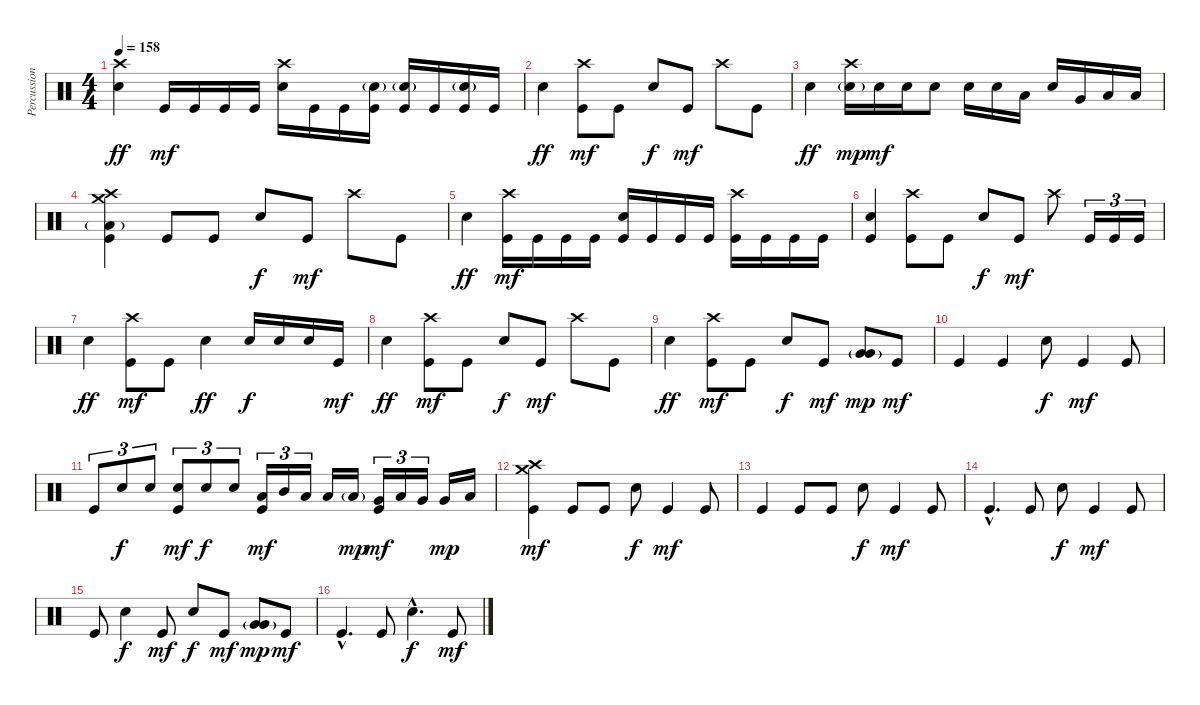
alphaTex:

\track ("Percussion" "Percussion") {instrument percussion}
\staff {score}
\articulation defaults
\ts (4 4)
\tempo 158
\clef neutral
\ks c
("Crash high (hit)" "Electric Snare (hit)").4{dy ff} "Kick (hit)".16{dy mf} "Kick (hit)".16 "Kick (hit)".16 "Kick (hit)".16 ("Crash high (hit)" "Electric Snare (hit)").16 "Kick (hit)".16 "Kick (hit)".16 ("Electric Snare (hit)"{g} "Kick (hit)").16 ("Electric Snare (hit)"{g} "Kick (hit)").16 "Kick (hit)".16 ("Electric Snare (hit)"{g} "Kick (hit)").16 "Kick (hit)".16 |
"Electric Snare (hit)".4{dy ff} ("Crash high (hit)" "Kick (hit)").8{dy mf} "Kick (hit)".8 "Electric Snare (hit)".8{dy f} "Kick (hit)".8{dy mf} "Crash high (hit)".8 "Kick (hit)".8 |
"Electric Snare (hit)".4{dy ff} ("Crash high (hit)" "Electric Snare (hit)"{g}).16{dy mp} "Electric Snare (hit)".16{dy mf} "Electric Snare (hit)".16 "Electric Snare (hit)".8 "Electric Snare (hit)".16 "Electric Snare (hit)".16 "Low Tom (hit)".16 "Electric Snare (hit)".16 "Very Low Tom (hit)".16 "Low Tom (hit)".16 "Low Floor Tom (hit)".16 |
("Crash high (hit)" "Crash medium (hit)" "Low Floor Tom (hit)"{g} "Kick (hit)").4 "Kick (hit)".8 "Kick (hit)".8 "Electric Snare (hit)".8{dy f} "Kick (hit)".8{dy mf} "Crash high (hit)".8 "Kick (hit)".8 |
"Electric Snare (hit)".4{dy ff} ("Crash high (hit)" "Kick (hit)").16{dy mf} "Kick (hit)".16 "Kick (hit)".16 "Kick (hit)".16 ("Electric Snare (hit)" "Kick (hit)").16 "Kick (hit)".16 "Kick (hit)".16 "Kick (hit)".16 ("Crash high (hit)" "Kick (hit)").16 "Kick (hit)".16 "Kick (hit)".16 "Kick (hit)".16 |
("Electric Snare (hit)" "Kick (hit)").4 ("Crash high (hit)" "Kick (hit)").8 "Kick (hit)".8 "Electric Snare (hit)".8{dy f} "Kick (hit)".8{dy mf} "Crash high (hit)".8 "Kick (hit)".16{tu (3 2)} "Kick (hit)".16{tu (3 2)} "Kick (hit)".16{tu (3 2)} |
"Electric Snare (hit)".4{dy ff} ("Crash high (hit)" "Kick (hit)").8{dy mf} "Kick (hit)".8 "Electric Snare (hit)".4{dy ff} "Electric Snare (hit)".16{dy f} "Electric Snare (hit)".16 "Electric Snare (hit)".16 "Kick (hit)".16{dy mf} |
"Electric Snare (hit)".4{dy ff} ("Crash high (hit)" "Kick (hit)").8{dy mf} "Kick (hit)".8 "Electric Snare (hit)".8{dy f} "Kick (hit)".8{dy mf} "Crash high (hit)".8 "Kick (hit)".8 |
"Electric Snare (hit)".4{dy ff} ("Crash high (hit)" "Kick (hit)").8{dy mf} "Kick (hit)".8 "Electric Snare (hit)".8{dy f} "Kick (hit)".8{dy mf} ("Very Low Tom (hit)"{g} "Very Low Tom (hit)").8{dy mp} "Kick (hit)".8{dy mf} |
"Kick (hit)".4 "Kick (hit)".4 "Electric Snare (hit)".8{dy f} "Kick (hit)".4{dy mf} "Kick (hit)".8 |
"Kick (hit)".8{tu (3 2)} "Electric Snare (hit)".8{tu (3 2) dy f} "Electric Snare (hit)".8{tu (3 2)} ("Electric Snare (hit)" "Kick (hit)").8{tu (3 2) dy mf} "Electric Snare (hit)".8{tu (3 2) dy f} "Electric Snare (hit)".8{tu (3 2)} ("Low Tom (hit)" "Kick (hit)").16{tu (3 2) dy mf} "Mid Tom (hit)".16{tu (3 2)} "Low Tom (hit)".16{tu (3 2)} "Low Tom (hit)".16 "Low Tom (hit)"{g}.16{dy mp} ("Very Low Tom (hit)" "Kick (hit)").16{tu (3 2) dy mf} "Low Tom (hit)".16{tu (3 2)} "Very Low Tom (hit)".16{tu (3 2)} "Very Low Tom (hit)".16{dy mp} "Low Floor Tom (hit)".16 |
("Crash medium (hit)" "Crash high (hit)" "Kick (hit)").4{dy mf} "Kick (hit)".8 "Kick (hit)".8 "Electric Snare (hit)".8{dy f} "Kick (hit)".4{dy mf} "Kick (hit)".8 |
"Kick (hit)".4 "Kick (hit)".8 "Kick (hit)".8 "Electric Snare (hit)".8{dy f} "Kick (hit)".4{dy mf} "Kick (hit)".8 |
"Kick (hit)"{hac}.4{d} "Kick (hit)".8 "Electric Snare (hit)".8{dy f} "Kick (hit)".4{dy mf} "Kick (hit)".8 |
"Kick (hit)".8 "Electric Snare (hit)".4{dy f} "Kick (hit)".8{dy mf} "Electric Snare (hit)".8{dy f} "Kick (hit)".8{dy mf} ("Very Low Tom (hit)"{g} "Very Low Tom (hit)").8{dy mp} "Kick (hit)".8{dy mf} |
"Kick (hit)"{hac}.4{d} "Kick (hit)".8 "Electric Snare (hit)"{hac}.4{d dy f} "Kick (hit)".8{dy mf}
